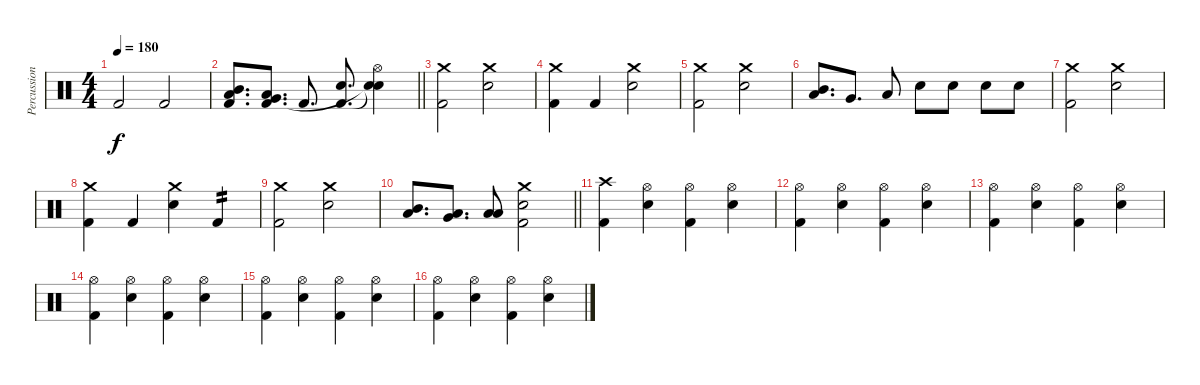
\track ("Percussion" "Percussion") {instrument percussion}
\staff {score}
\articulation defaults
\ts (4 4)
\tempo 180
\clef neutral
\ks c "Kick (hit) 2".2{dy f} "Kick (hit) 2".2
|
\barLineRight lightlight
("Low Tom (hit)" "Mid Tom (hit)" "Kick (hit) 2").8{d} ("Low Tom (hit)" "Very Low Tom (hit)" "Kick (hit) 2").8{d} "Kick (hit) 2".8{d} ("Electric Snare (hit)" "Kick (hit) 2").8{d} ("Hi-Hat (open)" "Snare (hit)"{t} "Snare (hit)"{t}).4 |
("Crash medium (hit)" "Kick (hit) 2").2 ("Crash medium (hit)" "Electric Snare (hit)").2 |
("Crash medium (hit)" "Kick (hit) 2").4 "Kick (hit) 2".4 ("Crash medium (hit)" "Electric Snare (hit)").2 |
("Crash medium (hit)" "Kick (hit) 2").2 ("Crash medium (hit)" "Electric Snare (hit)").2 |
("Mid Tom (hit)" "Low Tom (hit)").8{d bd 480} "Very Low Tom (hit)".8{d} "Low Floor Tom (hit)".8 "Electric Snare (hit)".8 "Electric Snare (hit)".8 "Electric Snare (hit)".8 "Electric Snare (hit)".8 |
("Crash medium (hit)" "Kick (hit) 2").2 ("Crash medium (hit)" "Electric Snare (hit)").2 |
("Crash medium (hit)" "Kick (hit) 2").4 "Kick (hit) 2".4 ("Crash medium (hit)" "Electric Snare (hit)").4 "Kick (hit) 2".4{tp 2} |
("Crash medium (hit)" "Kick (hit) 2").2 ("Crash medium (hit)" "Electric Snare (hit)").2 |
\barLineRight lightlight
("Mid Tom (hit)" "Low Tom (hit)").8{d bd 480} ("Low Floor Tom (hit)" "Very Low Tom (hit)").8{d} ("Low Floor Tom (hit)" "Low Floor Tom (hit)").8 ("Crash medium (hit)" "Electric Snare (hit)" "Kick (hit) 2").2 |
("Crash high (hit)" "Kick (hit) 2").4 ("Hi-Hat (open)" "Electric Snare (hit)").4 ("Hi-Hat (open)" "Kick (hit) 2").4 ("Hi-Hat (open)" "Electric Snare (hit)").4 |
("Hi-Hat (open)" "Kick (hit) 2").4 ("Hi-Hat (open)" "Electric Snare (hit)").4 ("Hi-Hat (open)" "Kick (hit) 2").4 ("Hi-Hat (open)" "Electric Snare (hit)").4 |
("Hi-Hat (open)" "Kick (hit) 2").4 ("Hi-Hat (open)" "Electric Snare (hit)").4 ("Hi-Hat (open)" "Kick (hit) 2").4 ("Hi-Hat (open)" "Electric Snare (hit)").4 |
("Hi-Hat (open)" "Kick (hit) 2").4 ("Hi-Hat (open)" "Electric Snare (hit)").4 ("Hi-Hat (open)" "Kick (hit) 2").4 ("Hi-Hat (open)" "Electric Snare (hit)").4 |
("Hi-Hat (open)" "Kick (hit) 2").4 ("Hi-Hat (open)" "Electric Snare (hit)").4 ("Hi-Hat (open)" "Kick (hit) 2").4 ("Hi-Hat (open)" "Electric Snare (hit)").4 |
("Hi-Hat (open)" "Kick (hit) 2").4 ("Hi-Hat (open)" "Electric Snare (hit)").4 ("Hi-Hat (open)" "Kick (hit) 2").4 ("Hi-Hat (open)" "Electric Snare (hit)").4
